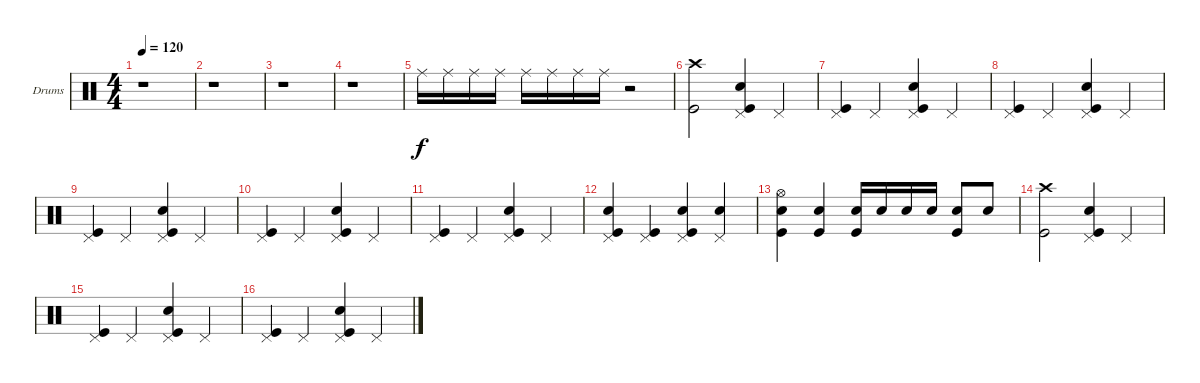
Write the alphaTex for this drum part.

\bracketExtendMode groupsimilarinstruments
\firstSystemTrackNameOrientation horizontal
\otherSystemsTrackNameOrientation horizontal
\track ("Drumkit" "Drums") {instrument percussion}
\staff {score}
\articulation defaults
\ts (4 4)
\tempo 120
\clef neutral
\ks c
r.1{dy f} |
r.1 |
r.1 |
r.1 |
"Ride (middle)".16 "Ride (middle)".16 "Ride (middle)".16 "Ride (middle)".16 "Ride (middle)".16 "Ride (middle)".16 "Ride (middle)".16 "Ride (middle)".16 r.2 |
("Crash high (hit)" "Kick (hit)").2 ("Pedal Hi-Hat (hit)" "Snare (hit) 2" "Kick (hit)").4 "Pedal Hi-Hat (hit)".4 |
("Pedal Hi-Hat (hit)" "Kick (hit)").4 "Pedal Hi-Hat (hit)".4 ("Pedal Hi-Hat (hit)" "Snare (hit) 2" "Kick (hit)").4 "Pedal Hi-Hat (hit)".4 |
("Pedal Hi-Hat (hit)" "Kick (hit)").4 "Pedal Hi-Hat (hit)".4 ("Pedal Hi-Hat (hit)" "Snare (hit) 2" "Kick (hit)").4 "Pedal Hi-Hat (hit)".4 |
("Pedal Hi-Hat (hit)" "Kick (hit)").4 "Pedal Hi-Hat (hit)".4 ("Pedal Hi-Hat (hit)" "Snare (hit) 2" "Kick (hit)").4 "Pedal Hi-Hat (hit)".4 |
("Pedal Hi-Hat (hit)" "Kick (hit)").4 "Pedal Hi-Hat (hit)".4 ("Pedal Hi-Hat (hit)" "Snare (hit) 2" "Kick (hit)").4 "Pedal Hi-Hat (hit)".4 |
("Pedal Hi-Hat (hit)" "Kick (hit)").4 "Pedal Hi-Hat (hit)".4 ("Pedal Hi-Hat (hit)" "Snare (hit) 2" "Kick (hit)").4 "Pedal Hi-Hat (hit)".4 |
("Pedal Hi-Hat (hit)" "Snare (hit) 2" "Kick (hit)").4 ("Pedal Hi-Hat (hit)" "Kick (hit)").4 ("Pedal Hi-Hat (hit)" "Snare (hit) 2" "Kick (hit)").4 ("Pedal Hi-Hat (hit)" "Snare (hit) 2").4 |
("Hi-Hat (open)" "Snare (hit) 2" "Kick (hit)").4 ("Snare (hit) 2" "Kick (hit)").4 ("Snare (hit) 2" "Kick (hit)").16 "Snare (hit) 2".16 "Snare (hit) 2".16 "Snare (hit) 2".16 ("Snare (hit) 2" "Kick (hit)").8 "Snare (hit) 2".8 |
("Crash high (hit)" "Kick (hit)").2 ("Pedal Hi-Hat (hit)" "Snare (hit) 2" "Kick (hit)").4 "Pedal Hi-Hat (hit)".4 |
("Pedal Hi-Hat (hit)" "Kick (hit)").4 "Pedal Hi-Hat (hit)".4 ("Pedal Hi-Hat (hit)" "Snare (hit) 2" "Kick (hit)").4 "Pedal Hi-Hat (hit)".4 |
("Pedal Hi-Hat (hit)" "Kick (hit)").4 "Pedal Hi-Hat (hit)".4 ("Pedal Hi-Hat (hit)" "Snare (hit) 2" "Kick (hit)").4 "Pedal Hi-Hat (hit)".4
